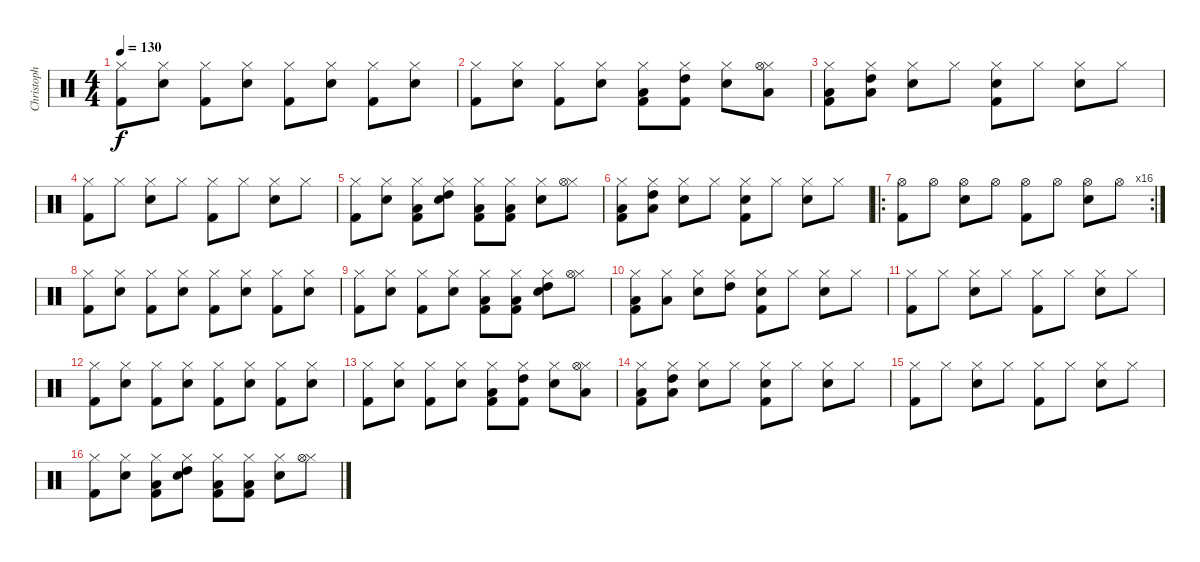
\track ("Christoph Schneider" "Christoph ") {instrument percussion}
\staff {score}
\articulation defaults
\ts (4 4)
\tempo 130
\clef neutral
\ks c
("Hi-Hat (closed)" "Kick (hit) 2").8{dy f} ("Hi-Hat (closed)" "Electric Snare (hit)").8 ("Hi-Hat (closed)" "Kick (hit) 2").8 ("Hi-Hat (closed)" "Electric Snare (hit)").8 ("Hi-Hat (closed)" "Kick (hit) 2").8 ("Hi-Hat (closed)" "Electric Snare (hit)").8 ("Hi-Hat (closed)" "Kick (hit) 2").8 ("Hi-Hat (closed)" "Electric Snare (hit)").8 |
("Hi-Hat (closed)" "Kick (hit) 2").8 ("Hi-Hat (closed)" "Electric Snare (hit)").8 ("Hi-Hat (closed)" "Kick (hit) 2").8 ("Hi-Hat (closed)" "Electric Snare (hit)").8 ("Hi-Hat (closed)" "Low Tom (hit)" "Kick (hit) 2").8 ("Hi-Hat (closed)" "High Tom (hit)" "Kick (hit) 2").8 ("Hi-Hat (closed)" "Electric Snare (hit)").8 ("Hi-Hat (closed)" "Low Tom (hit)" "Hi-Hat (open)").8 |
("Hi-Hat (closed)" "Low Tom (hit)" "Kick (hit) 2").8 ("Hi-Hat (closed)" "High Tom (hit)" "Low Tom (hit)").8 ("Hi-Hat (closed)" "Electric Snare (hit)").8 "Hi-Hat (closed)".8 ("Hi-Hat (closed)" "Electric Snare (hit)" "Kick (hit) 2").8 "Hi-Hat (closed)".8 ("Hi-Hat (closed)" "Electric Snare (hit)").8 "Hi-Hat (closed)".8 |
("Hi-Hat (closed)" "Kick (hit) 2").8 "Hi-Hat (closed)".8 ("Hi-Hat (closed)" "Electric Snare (hit)").8 "Hi-Hat (closed)".8 ("Hi-Hat (closed)" "Kick (hit) 2").8 "Hi-Hat (closed)".8 ("Hi-Hat (closed)" "Electric Snare (hit)").8 "Hi-Hat (closed)".8 |
("Hi-Hat (closed)" "Kick (hit) 2").8 ("Hi-Hat (closed)" "Electric Snare (hit)").8 ("Hi-Hat (closed)" "Low Tom (hit)" "Kick (hit) 2").8 ("Hi-Hat (closed)" "High Tom (hit)" "Electric Snare (hit)").8 ("Hi-Hat (closed)" "Low Tom (hit)" "Kick (hit) 2").8 ("Hi-Hat (closed)" "Low Tom (hit)" "Kick (hit) 2").8 ("Hi-Hat (closed)" "Electric Snare (hit)").8 ("Hi-Hat (closed)" "Hi-Hat (open)").8 |
("Hi-Hat (closed)" "Low Tom (hit)" "Kick (hit) 2").8 ("Hi-Hat (closed)" "High Tom (hit)" "Low Tom (hit)").8 ("Hi-Hat (closed)" "Electric Snare (hit)").8 "Hi-Hat (closed)".8 ("Hi-Hat (closed)" "Electric Snare (hit)" "Kick (hit) 2").8 "Hi-Hat (closed)".8 ("Hi-Hat (closed)" "Electric Snare (hit)").8 "Hi-Hat (closed)".8 |
\ro
\rc 16
("Hi-Hat (open)" "Kick (hit) 2").8 "Hi-Hat (open)".8 ("Hi-Hat (open)" "Electric Snare (hit)").8 "Hi-Hat (open)".8 ("Hi-Hat (open)" "Kick (hit) 2").8 "Hi-Hat (open)".8 ("Hi-Hat (open)" "Electric Snare (hit)").8 "Hi-Hat (open)".8 |
("Hi-Hat (closed)" "Kick (hit) 2").8 ("Hi-Hat (closed)" "Electric Snare (hit)").8 ("Hi-Hat (closed)" "Kick (hit) 2").8 ("Hi-Hat (closed)" "Electric Snare (hit)").8 ("Hi-Hat (closed)" "Kick (hit) 2").8 ("Hi-Hat (closed)" "Electric Snare (hit)").8 ("Hi-Hat (closed)" "Kick (hit) 2").8 ("Hi-Hat (closed)" "Electric Snare (hit)").8 |
("Hi-Hat (closed)" "Kick (hit) 2").8 ("Hi-Hat (closed)" "Electric Snare (hit)").8 ("Hi-Hat (closed)" "Kick (hit) 2").8 ("Hi-Hat (closed)" "Electric Snare (hit)").8 ("Hi-Hat (closed)" "Low Tom (hit)" "Kick (hit) 2").8 ("Hi-Hat (closed)" "Low Tom (hit)" "Kick (hit) 2").8 ("Hi-Hat (closed)" "High Tom (hit)" "Electric Snare (hit)").8 ("Hi-Hat (closed)" "Hi-Hat (open)").8 |
("Hi-Hat (closed)" "Low Tom (hit)" "Kick (hit) 2").8 ("Hi-Hat (closed)" "Low Tom (hit)").8 ("Hi-Hat (closed)" "Electric Snare (hit)").8 ("Hi-Hat (closed)" "High Tom (hit)").8 ("Hi-Hat (closed)" "Electric Snare (hit)" "Kick (hit) 2").8 "Hi-Hat (closed)".8 ("Hi-Hat (closed)" "Electric Snare (hit)").8 "Hi-Hat (closed)".8 |
("Hi-Hat (closed)" "Kick (hit) 2").8 "Hi-Hat (closed)".8 ("Hi-Hat (closed)" "Electric Snare (hit)").8 "Hi-Hat (closed)".8 ("Hi-Hat (closed)" "Kick (hit) 2").8 "Hi-Hat (closed)".8 ("Hi-Hat (closed)" "Electric Snare (hit)").8 "Hi-Hat (closed)".8 |
("Hi-Hat (closed)" "Kick (hit) 2").8 ("Hi-Hat (closed)" "Electric Snare (hit)").8 ("Hi-Hat (closed)" "Kick (hit) 2").8 ("Hi-Hat (closed)" "Electric Snare (hit)").8 ("Hi-Hat (closed)" "Kick (hit) 2").8 ("Hi-Hat (closed)" "Electric Snare (hit)").8 ("Hi-Hat (closed)" "Kick (hit) 2").8 ("Hi-Hat (closed)" "Electric Snare (hit)").8 |
("Hi-Hat (closed)" "Kick (hit) 2").8 ("Hi-Hat (closed)" "Electric Snare (hit)").8 ("Hi-Hat (closed)" "Kick (hit) 2").8 ("Hi-Hat (closed)" "Electric Snare (hit)").8 ("Hi-Hat (closed)" "Low Tom (hit)" "Kick (hit) 2").8 ("Hi-Hat (closed)" "High Tom (hit)" "Kick (hit) 2").8 ("Hi-Hat (closed)" "Electric Snare (hit)").8 ("Hi-Hat (closed)" "Low Tom (hit)" "Hi-Hat (open)").8 |
("Hi-Hat (closed)" "Low Tom (hit)" "Kick (hit) 2").8 ("Hi-Hat (closed)" "High Tom (hit)" "Low Tom (hit)").8 ("Hi-Hat (closed)" "Electric Snare (hit)").8 "Hi-Hat (closed)".8 ("Hi-Hat (closed)" "Electric Snare (hit)" "Kick (hit) 2").8 "Hi-Hat (closed)".8 ("Hi-Hat (closed)" "Electric Snare (hit)").8 "Hi-Hat (closed)".8 |
("Hi-Hat (closed)" "Kick (hit) 2").8 "Hi-Hat (closed)".8 ("Hi-Hat (closed)" "Electric Snare (hit)").8 "Hi-Hat (closed)".8 ("Hi-Hat (closed)" "Kick (hit) 2").8 "Hi-Hat (closed)".8 ("Hi-Hat (closed)" "Electric Snare (hit)").8 "Hi-Hat (closed)".8 |
("Hi-Hat (closed)" "Kick (hit) 2").8 ("Hi-Hat (closed)" "Electric Snare (hit)").8 ("Hi-Hat (closed)" "Low Tom (hit)" "Kick (hit) 2").8 ("Hi-Hat (closed)" "High Tom (hit)" "Electric Snare (hit)").8 ("Hi-Hat (closed)" "Low Tom (hit)" "Kick (hit) 2").8 ("Hi-Hat (closed)" "Low Tom (hit)" "Kick (hit) 2").8 ("Hi-Hat (closed)" "Electric Snare (hit)").8 ("Hi-Hat (closed)" "Hi-Hat (open)").8
